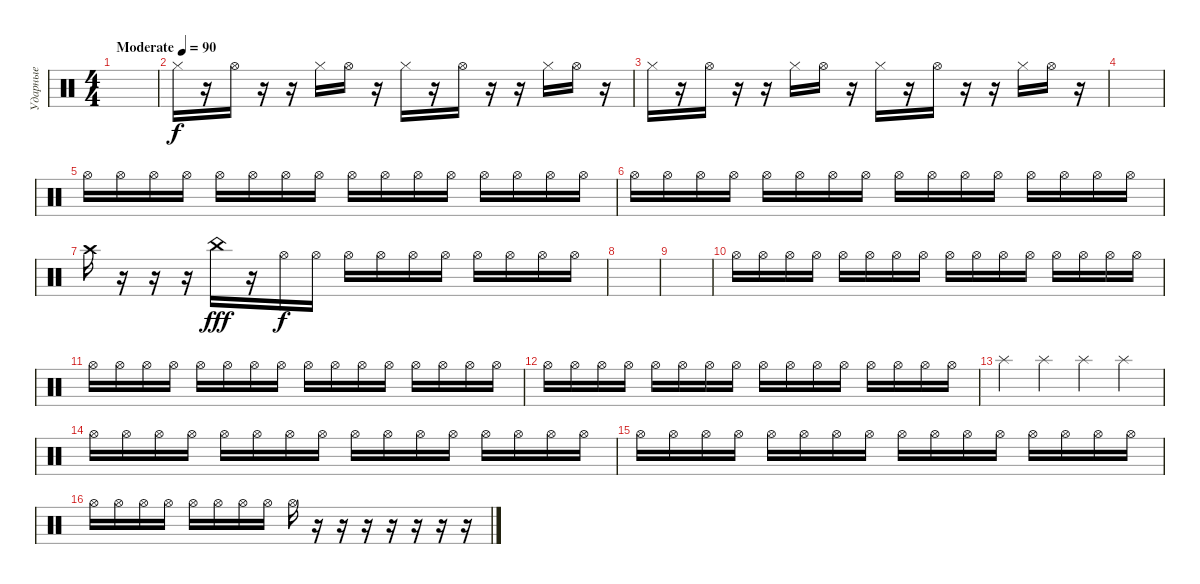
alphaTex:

\track ("Ударные" "Ударные") {instrument percussion}
\staff {score}
\articulation defaults
\ts (4 4)
\tempo (90 "Moderate")
\clef neutral
\ks c
|
"Hi-Hat (closed)".16 r.16 "Hi-Hat (open)".16 r.16 r.16 "Hi-Hat (closed)".16 "Hi-Hat (open)".16 r.16 "Hi-Hat (closed)".16 r.16 "Hi-Hat (open)".16 r.16 r.16 "Hi-Hat (closed)".16 "Hi-Hat (open)".16 r.16 |
"Hi-Hat (closed)".16 r.16 "Hi-Hat (open)".16 r.16 r.16 "Hi-Hat (closed)".16 "Hi-Hat (open)".16 r.16 "Hi-Hat (closed)".16 r.16 "Hi-Hat (open)".16 r.16 r.16 "Hi-Hat (closed)".16 "Hi-Hat (open)".16 r.16 |
|
"Hi-Hat (open)".16 "Hi-Hat (open)".16 "Hi-Hat (open)".16 "Hi-Hat (open)".16 "Hi-Hat (open)".16 "Hi-Hat (open)".16 "Hi-Hat (open)".16 "Hi-Hat (open)".16 "Hi-Hat (open)".16 "Hi-Hat (open)".16 "Hi-Hat (open)".16 "Hi-Hat (open)".16 "Hi-Hat (open)".16 "Hi-Hat (open)".16 "Hi-Hat (open)".16 "Hi-Hat (open)".16 |
"Hi-Hat (open)".16 "Hi-Hat (open)".16 "Hi-Hat (open)".16 "Hi-Hat (open)".16 "Hi-Hat (open)".16 "Hi-Hat (open)".16 "Hi-Hat (open)".16 "Hi-Hat (open)".16 "Hi-Hat (open)".16 "Hi-Hat (open)".16 "Hi-Hat (open)".16 "Hi-Hat (open)".16 "Hi-Hat (open)".16 "Hi-Hat (open)".16 "Hi-Hat (open)".16 "Hi-Hat (open)".16 |
"Crash high (hit)".16 r.16 r.16 r.16 "China (hit)".16{dy fff} r.16 "Hi-Hat (open)".16{dy f} "Hi-Hat (open)".16 "Hi-Hat (open)".16 "Hi-Hat (open)".16 "Hi-Hat (open)".16 "Hi-Hat (open)".16 "Hi-Hat (open)".16 "Hi-Hat (open)".16 "Hi-Hat (open)".16 "Hi-Hat (open)".16 |
|
|
"Hi-Hat (open)".16 "Hi-Hat (open)".16 "Hi-Hat (open)".16 "Hi-Hat (open)".16 "Hi-Hat (open)".16 "Hi-Hat (open)".16 "Hi-Hat (open)".16 "Hi-Hat (open)".16 "Hi-Hat (open)".16 "Hi-Hat (open)".16 "Hi-Hat (open)".16 "Hi-Hat (open)".16 "Hi-Hat (open)".16 "Hi-Hat (open)".16 "Hi-Hat (open)".16 "Hi-Hat (open)".16 |
"Hi-Hat (open)".16 "Hi-Hat (open)".16 "Hi-Hat (open)".16 "Hi-Hat (open)".16 "Hi-Hat (open)".16 "Hi-Hat (open)".16 "Hi-Hat (open)".16 "Hi-Hat (open)".16 "Hi-Hat (open)".16 "Hi-Hat (open)".16 "Hi-Hat (open)".16 "Hi-Hat (open)".16 "Hi-Hat (open)".16 "Hi-Hat (open)".16 "Hi-Hat (open)".16 "Hi-Hat (open)".16 |
"Hi-Hat (open)".16 "Hi-Hat (open)".16 "Hi-Hat (open)".16 "Hi-Hat (open)".16 "Hi-Hat (open)".16 "Hi-Hat (open)".16 "Hi-Hat (open)".16 "Hi-Hat (open)".16 "Hi-Hat (open)".16 "Hi-Hat (open)".16 "Hi-Hat (open)".16 "Hi-Hat (open)".16 "Hi-Hat (open)".16 "Hi-Hat (open)".16 "Hi-Hat (open)".16 "Hi-Hat (open)".16 |
"Splash (hit)".4 "Splash (hit)".4 "Splash (hit)".4 "Splash (hit)".4 |
"Hi-Hat (open)".16 "Hi-Hat (open)".16 "Hi-Hat (open)".16 "Hi-Hat (open)".16 "Hi-Hat (open)".16 "Hi-Hat (open)".16 "Hi-Hat (open)".16 "Hi-Hat (open)".16 "Hi-Hat (open)".16 "Hi-Hat (open)".16 "Hi-Hat (open)".16 "Hi-Hat (open)".16 "Hi-Hat (open)".16 "Hi-Hat (open)".16 "Hi-Hat (open)".16 "Hi-Hat (open)".16 |
"Hi-Hat (open)".16 "Hi-Hat (open)".16 "Hi-Hat (open)".16 "Hi-Hat (open)".16 "Hi-Hat (open)".16 "Hi-Hat (open)".16 "Hi-Hat (open)".16 "Hi-Hat (open)".16 "Hi-Hat (open)".16 "Hi-Hat (open)".16 "Hi-Hat (open)".16 "Hi-Hat (open)".16 "Hi-Hat (open)".16 "Hi-Hat (open)".16 "Hi-Hat (open)".16 "Hi-Hat (open)".16 |
"Hi-Hat (open)".16 "Hi-Hat (open)".16 "Hi-Hat (open)".16 "Hi-Hat (open)".16 "Hi-Hat (open)".16 "Hi-Hat (open)".16 "Hi-Hat (open)".16 "Hi-Hat (open)".16 "Hi-Hat (open)".16 r.16 r.16 r.16 r.16 r.16 r.16 r.16
